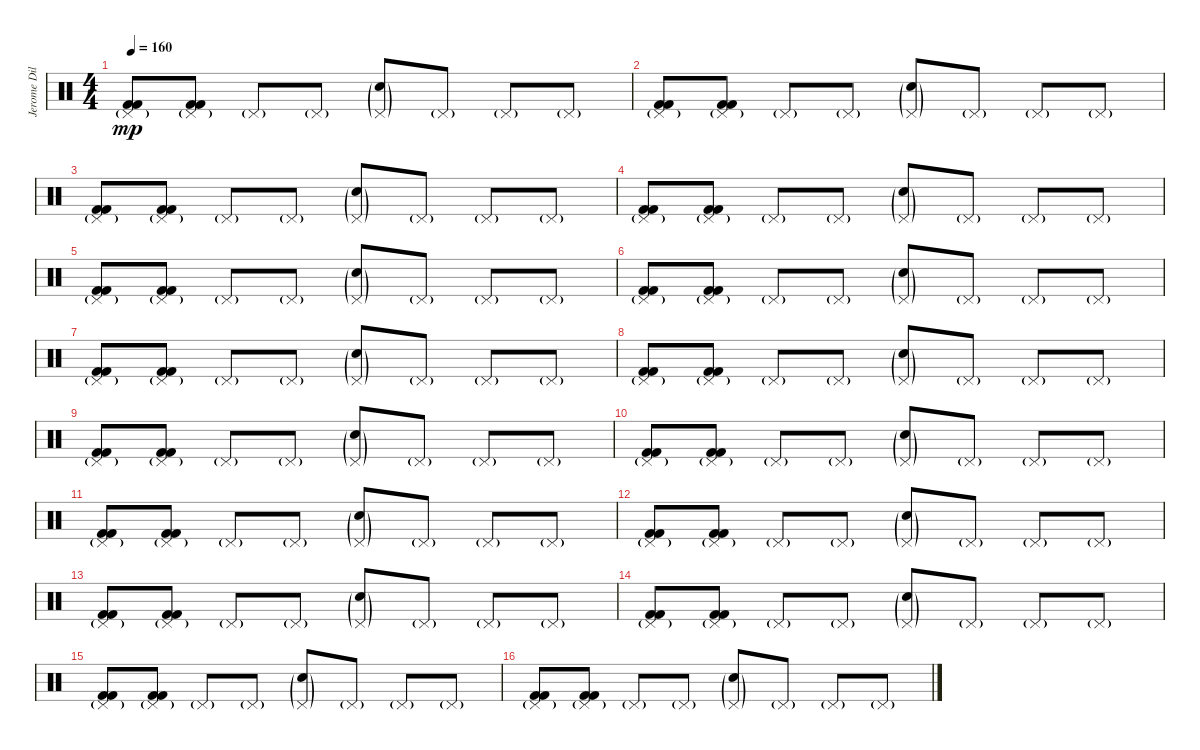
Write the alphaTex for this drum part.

\track ("Jerome Dillon" "Jerome Dil") {instrument percussion}
\staff {score}
\articulation defaults
\ts (4 4)
\tempo 160
\clef neutral
\ks c
("Pedal Hi-Hat (hit)"{g} "Kick (hit) 2" "Kick (hit) 2").8{dy mp} ("Pedal Hi-Hat (hit)"{g} "Kick (hit) 2" "Kick (hit) 2").8 "Pedal Hi-Hat (hit)"{g}.8 "Pedal Hi-Hat (hit)"{g}.8 ("Pedal Hi-Hat (hit)"{g} "Electric Snare (hit)"{g}).8 "Pedal Hi-Hat (hit)"{g}.8 "Pedal Hi-Hat (hit)"{g}.8 "Pedal Hi-Hat (hit)"{g}.8 |
("Pedal Hi-Hat (hit)"{g} "Kick (hit) 2" "Kick (hit) 2").8 ("Pedal Hi-Hat (hit)"{g} "Kick (hit) 2" "Kick (hit) 2").8 "Pedal Hi-Hat (hit)"{g}.8 "Pedal Hi-Hat (hit)"{g}.8 ("Pedal Hi-Hat (hit)"{g} "Electric Snare (hit)"{g}).8 "Pedal Hi-Hat (hit)"{g}.8 "Pedal Hi-Hat (hit)"{g}.8 "Pedal Hi-Hat (hit)"{g}.8 |
("Pedal Hi-Hat (hit)"{g} "Kick (hit) 2" "Kick (hit) 2").8 ("Pedal Hi-Hat (hit)"{g} "Kick (hit) 2" "Kick (hit) 2").8 "Pedal Hi-Hat (hit)"{g}.8 "Pedal Hi-Hat (hit)"{g}.8 ("Pedal Hi-Hat (hit)"{g} "Electric Snare (hit)"{g}).8 "Pedal Hi-Hat (hit)"{g}.8 "Pedal Hi-Hat (hit)"{g}.8 "Pedal Hi-Hat (hit)"{g}.8 |
("Pedal Hi-Hat (hit)"{g} "Kick (hit) 2" "Kick (hit) 2").8 ("Pedal Hi-Hat (hit)"{g} "Kick (hit) 2" "Kick (hit) 2").8 "Pedal Hi-Hat (hit)"{g}.8 "Pedal Hi-Hat (hit)"{g}.8 ("Pedal Hi-Hat (hit)"{g} "Electric Snare (hit)"{g}).8 "Pedal Hi-Hat (hit)"{g}.8 "Pedal Hi-Hat (hit)"{g}.8 "Pedal Hi-Hat (hit)"{g}.8 |
("Pedal Hi-Hat (hit)"{g} "Kick (hit) 2" "Kick (hit) 2").8 ("Pedal Hi-Hat (hit)"{g} "Kick (hit) 2" "Kick (hit) 2").8 "Pedal Hi-Hat (hit)"{g}.8 "Pedal Hi-Hat (hit)"{g}.8 ("Pedal Hi-Hat (hit)"{g} "Electric Snare (hit)"{g}).8 "Pedal Hi-Hat (hit)"{g}.8 "Pedal Hi-Hat (hit)"{g}.8 "Pedal Hi-Hat (hit)"{g}.8 |
("Pedal Hi-Hat (hit)"{g} "Kick (hit) 2" "Kick (hit) 2").8 ("Pedal Hi-Hat (hit)"{g} "Kick (hit) 2" "Kick (hit) 2").8 "Pedal Hi-Hat (hit)"{g}.8 "Pedal Hi-Hat (hit)"{g}.8 ("Pedal Hi-Hat (hit)"{g} "Electric Snare (hit)"{g}).8 "Pedal Hi-Hat (hit)"{g}.8 "Pedal Hi-Hat (hit)"{g}.8 "Pedal Hi-Hat (hit)"{g}.8 |
("Pedal Hi-Hat (hit)"{g} "Kick (hit) 2" "Kick (hit) 2").8 ("Pedal Hi-Hat (hit)"{g} "Kick (hit) 2" "Kick (hit) 2").8 "Pedal Hi-Hat (hit)"{g}.8 "Pedal Hi-Hat (hit)"{g}.8 ("Pedal Hi-Hat (hit)"{g} "Electric Snare (hit)"{g}).8 "Pedal Hi-Hat (hit)"{g}.8 "Pedal Hi-Hat (hit)"{g}.8 "Pedal Hi-Hat (hit)"{g}.8 |
("Pedal Hi-Hat (hit)"{g} "Kick (hit) 2" "Kick (hit) 2").8 ("Pedal Hi-Hat (hit)"{g} "Kick (hit) 2" "Kick (hit) 2").8 "Pedal Hi-Hat (hit)"{g}.8 "Pedal Hi-Hat (hit)"{g}.8 ("Pedal Hi-Hat (hit)"{g} "Electric Snare (hit)"{g}).8 "Pedal Hi-Hat (hit)"{g}.8 "Pedal Hi-Hat (hit)"{g}.8 "Pedal Hi-Hat (hit)"{g}.8 |
("Pedal Hi-Hat (hit)"{g} "Kick (hit) 2" "Kick (hit) 2").8 ("Pedal Hi-Hat (hit)"{g} "Kick (hit) 2" "Kick (hit) 2").8 "Pedal Hi-Hat (hit)"{g}.8 "Pedal Hi-Hat (hit)"{g}.8 ("Pedal Hi-Hat (hit)"{g} "Electric Snare (hit)"{g}).8 "Pedal Hi-Hat (hit)"{g}.8 "Pedal Hi-Hat (hit)"{g}.8 "Pedal Hi-Hat (hit)"{g}.8 |
("Pedal Hi-Hat (hit)"{g} "Kick (hit) 2" "Kick (hit) 2").8 ("Pedal Hi-Hat (hit)"{g} "Kick (hit) 2" "Kick (hit) 2").8 "Pedal Hi-Hat (hit)"{g}.8 "Pedal Hi-Hat (hit)"{g}.8 ("Pedal Hi-Hat (hit)"{g} "Electric Snare (hit)"{g}).8 "Pedal Hi-Hat (hit)"{g}.8 "Pedal Hi-Hat (hit)"{g}.8 "Pedal Hi-Hat (hit)"{g}.8 |
("Pedal Hi-Hat (hit)"{g} "Kick (hit) 2" "Kick (hit) 2").8 ("Pedal Hi-Hat (hit)"{g} "Kick (hit) 2" "Kick (hit) 2").8 "Pedal Hi-Hat (hit)"{g}.8 "Pedal Hi-Hat (hit)"{g}.8 ("Pedal Hi-Hat (hit)"{g} "Electric Snare (hit)"{g}).8 "Pedal Hi-Hat (hit)"{g}.8 "Pedal Hi-Hat (hit)"{g}.8 "Pedal Hi-Hat (hit)"{g}.8 |
("Pedal Hi-Hat (hit)"{g} "Kick (hit) 2" "Kick (hit) 2").8 ("Pedal Hi-Hat (hit)"{g} "Kick (hit) 2" "Kick (hit) 2").8 "Pedal Hi-Hat (hit)"{g}.8 "Pedal Hi-Hat (hit)"{g}.8 ("Pedal Hi-Hat (hit)"{g} "Electric Snare (hit)"{g}).8 "Pedal Hi-Hat (hit)"{g}.8 "Pedal Hi-Hat (hit)"{g}.8 "Pedal Hi-Hat (hit)"{g}.8 |
("Pedal Hi-Hat (hit)"{g} "Kick (hit) 2" "Kick (hit) 2").8 ("Pedal Hi-Hat (hit)"{g} "Kick (hit) 2" "Kick (hit) 2").8 "Pedal Hi-Hat (hit)"{g}.8 "Pedal Hi-Hat (hit)"{g}.8 ("Pedal Hi-Hat (hit)"{g} "Electric Snare (hit)"{g}).8 "Pedal Hi-Hat (hit)"{g}.8 "Pedal Hi-Hat (hit)"{g}.8 "Pedal Hi-Hat (hit)"{g}.8 |
("Pedal Hi-Hat (hit)"{g} "Kick (hit) 2" "Kick (hit) 2").8 ("Pedal Hi-Hat (hit)"{g} "Kick (hit) 2" "Kick (hit) 2").8 "Pedal Hi-Hat (hit)"{g}.8 "Pedal Hi-Hat (hit)"{g}.8 ("Pedal Hi-Hat (hit)"{g} "Electric Snare (hit)"{g}).8 "Pedal Hi-Hat (hit)"{g}.8 "Pedal Hi-Hat (hit)"{g}.8 "Pedal Hi-Hat (hit)"{g}.8 |
("Pedal Hi-Hat (hit)"{g} "Kick (hit) 2" "Kick (hit) 2").8 ("Pedal Hi-Hat (hit)"{g} "Kick (hit) 2" "Kick (hit) 2").8 "Pedal Hi-Hat (hit)"{g}.8 "Pedal Hi-Hat (hit)"{g}.8 ("Pedal Hi-Hat (hit)"{g} "Electric Snare (hit)"{g}).8 "Pedal Hi-Hat (hit)"{g}.8 "Pedal Hi-Hat (hit)"{g}.8 "Pedal Hi-Hat (hit)"{g}.8 |
("Pedal Hi-Hat (hit)"{g} "Kick (hit) 2" "Kick (hit) 2").8 ("Pedal Hi-Hat (hit)"{g} "Kick (hit) 2" "Kick (hit) 2").8 "Pedal Hi-Hat (hit)"{g}.8 "Pedal Hi-Hat (hit)"{g}.8 ("Pedal Hi-Hat (hit)"{g} "Electric Snare (hit)"{g}).8 "Pedal Hi-Hat (hit)"{g}.8 "Pedal Hi-Hat (hit)"{g}.8 "Pedal Hi-Hat (hit)"{g}.8
